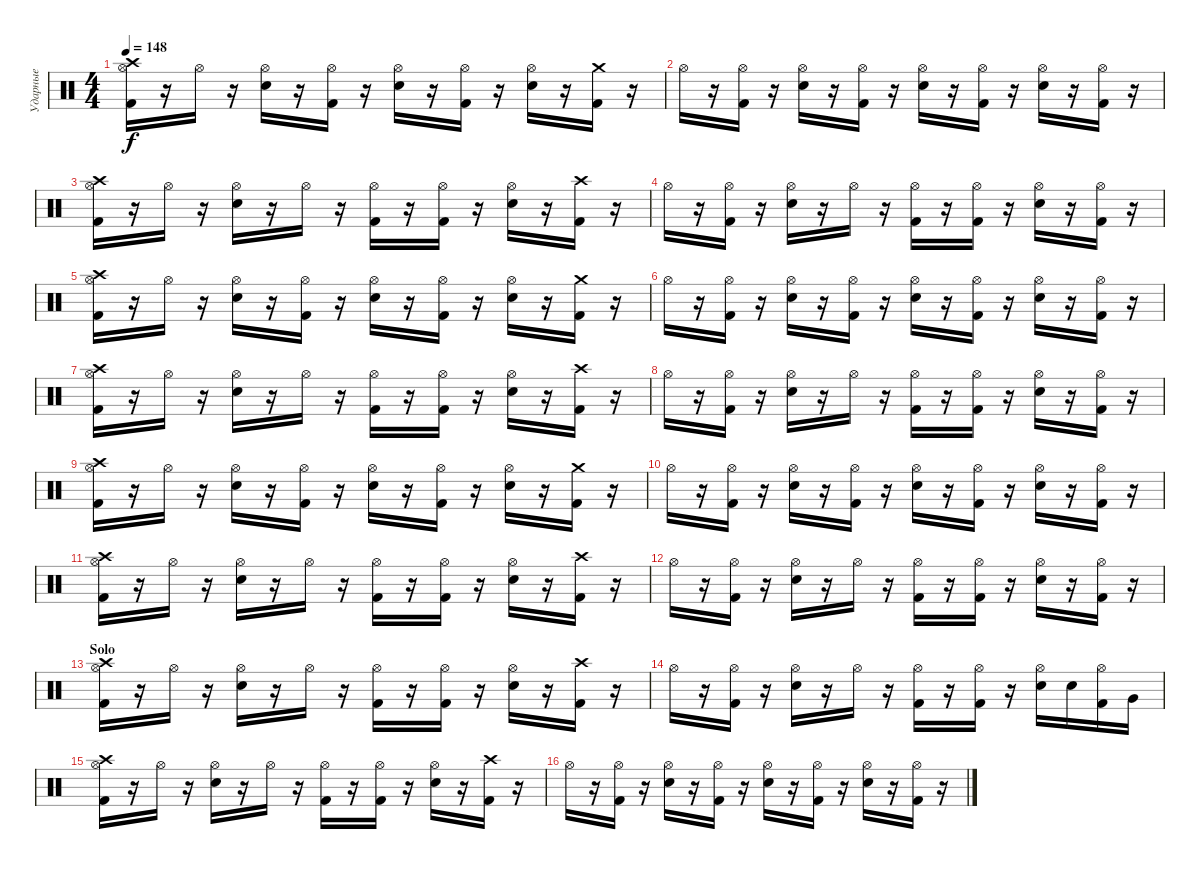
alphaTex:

\track ("Ударные" "Ударные") {instrument percussion}
\staff {score}
\articulation defaults
\ts (4 4)
\tempo 148
\clef neutral
\ks c
("Crash high (hit)" "Hi-Hat (open)" "Kick (hit) 2").16{dy f} r.16 "Hi-Hat (open)".16 r.16 ("Hi-Hat (open)" "Electric Snare (hit)").16 r.16 ("Hi-Hat (open)" "Kick (hit) 2").16 r.16 ("Hi-Hat (open)" "Electric Snare (hit)").16 r.16 ("Hi-Hat (open)" "Kick (hit) 2").16 r.16 ("Hi-Hat (open)" "Electric Snare (hit)").16 r.16 ("Crash medium (hit)" "Kick (hit) 2").16 r.16 |
"Hi-Hat (open)".16 r.16 ("Hi-Hat (open)" "Kick (hit) 2").16 r.16 ("Hi-Hat (open)" "Electric Snare (hit)").16 r.16 ("Hi-Hat (open)" "Kick (hit) 2").16 r.16 ("Hi-Hat (open)" "Electric Snare (hit)").16 r.16 ("Hi-Hat (open)" "Kick (hit) 2").16 r.16 ("Hi-Hat (open)" "Electric Snare (hit)").16 r.16 ("Hi-Hat (open)" "Kick (hit) 2").16 r.16 |
("Crash high (hit)" "Hi-Hat (open)" "Kick (hit) 2").16 r.16 "Hi-Hat (open)".16 r.16 ("Hi-Hat (open)" "Electric Snare (hit)").16 r.16 "Hi-Hat (open)".16 r.16 ("Hi-Hat (open)" "Kick (hit) 2").16 r.16 ("Hi-Hat (open)" "Kick (hit) 2").16 r.16 ("Hi-Hat (open)" "Electric Snare (hit)").16 r.16 ("Crash high (hit)" "Kick (hit) 2").16 r.16 |
"Hi-Hat (open)".16 r.16 ("Hi-Hat (open)" "Kick (hit) 2").16 r.16 ("Hi-Hat (open)" "Electric Snare (hit)").16 r.16 "Hi-Hat (open)".16 r.16 ("Hi-Hat (open)" "Kick (hit) 2").16 r.16 ("Hi-Hat (open)" "Kick (hit) 2").16 r.16 ("Hi-Hat (open)" "Electric Snare (hit)").16 r.16 ("Hi-Hat (open)" "Kick (hit) 2").16 r.16 |
("Crash high (hit)" "Hi-Hat (open)" "Kick (hit) 2").16 r.16 "Hi-Hat (open)".16 r.16 ("Hi-Hat (open)" "Electric Snare (hit)").16 r.16 ("Hi-Hat (open)" "Kick (hit) 2").16 r.16 ("Hi-Hat (open)" "Electric Snare (hit)").16 r.16 ("Hi-Hat (open)" "Kick (hit) 2").16 r.16 ("Hi-Hat (open)" "Electric Snare (hit)").16 r.16 ("Crash medium (hit)" "Kick (hit) 2").16 r.16 |
"Hi-Hat (open)".16 r.16 ("Hi-Hat (open)" "Kick (hit) 2").16 r.16 ("Hi-Hat (open)" "Electric Snare (hit)").16 r.16 ("Hi-Hat (open)" "Kick (hit) 2").16 r.16 ("Hi-Hat (open)" "Electric Snare (hit)").16 r.16 ("Hi-Hat (open)" "Kick (hit) 2").16 r.16 ("Hi-Hat (open)" "Electric Snare (hit)").16 r.16 ("Hi-Hat (open)" "Kick (hit) 2").16 r.16 |
("Crash high (hit)" "Hi-Hat (open)" "Kick (hit) 2").16 r.16 "Hi-Hat (open)".16 r.16 ("Hi-Hat (open)" "Electric Snare (hit)").16 r.16 "Hi-Hat (open)".16 r.16 ("Hi-Hat (open)" "Kick (hit) 2").16 r.16 ("Hi-Hat (open)" "Kick (hit) 2").16 r.16 ("Hi-Hat (open)" "Electric Snare (hit)").16 r.16 ("Crash high (hit)" "Kick (hit) 2").16 r.16 |
"Hi-Hat (open)".16 r.16 ("Hi-Hat (open)" "Kick (hit) 2").16 r.16 ("Hi-Hat (open)" "Electric Snare (hit)").16 r.16 "Hi-Hat (open)".16 r.16 ("Hi-Hat (open)" "Kick (hit) 2").16 r.16 ("Hi-Hat (open)" "Kick (hit) 2").16 r.16 ("Hi-Hat (open)" "Electric Snare (hit)").16 r.16 ("Hi-Hat (open)" "Kick (hit) 2").16 r.16 |
("Crash high (hit)" "Hi-Hat (open)" "Kick (hit) 2").16 r.16 "Hi-Hat (open)".16 r.16 ("Hi-Hat (open)" "Electric Snare (hit)").16 r.16 ("Hi-Hat (open)" "Kick (hit) 2").16 r.16 ("Hi-Hat (open)" "Electric Snare (hit)").16 r.16 ("Hi-Hat (open)" "Kick (hit) 2").16 r.16 ("Hi-Hat (open)" "Electric Snare (hit)").16 r.16 ("Crash medium (hit)" "Kick (hit) 2").16 r.16 |
"Hi-Hat (open)".16 r.16 ("Hi-Hat (open)" "Kick (hit) 2").16 r.16 ("Hi-Hat (open)" "Electric Snare (hit)").16 r.16 ("Hi-Hat (open)" "Kick (hit) 2").16 r.16 ("Hi-Hat (open)" "Electric Snare (hit)").16 r.16 ("Hi-Hat (open)" "Kick (hit) 2").16 r.16 ("Hi-Hat (open)" "Electric Snare (hit)").16 r.16 ("Hi-Hat (open)" "Kick (hit) 2").16 r.16 |
("Crash high (hit)" "Hi-Hat (open)" "Kick (hit) 2").16 r.16 "Hi-Hat (open)".16 r.16 ("Hi-Hat (open)" "Electric Snare (hit)").16 r.16 "Hi-Hat (open)".16 r.16 ("Hi-Hat (open)" "Kick (hit) 2").16 r.16 ("Hi-Hat (open)" "Kick (hit) 2").16 r.16 ("Hi-Hat (open)" "Electric Snare (hit)").16 r.16 ("Crash high (hit)" "Kick (hit) 2").16 r.16 |
"Hi-Hat (open)".16 r.16 ("Hi-Hat (open)" "Kick (hit) 2").16 r.16 ("Hi-Hat (open)" "Electric Snare (hit)").16 r.16 "Hi-Hat (open)".16 r.16 ("Hi-Hat (open)" "Kick (hit) 2").16 r.16 ("Hi-Hat (open)" "Kick (hit) 2").16 r.16 ("Hi-Hat (open)" "Electric Snare (hit)").16 r.16 ("Hi-Hat (open)" "Kick (hit) 2").16 r.16 |
\section ("" "Solo")
("Crash high (hit)" "Hi-Hat (open)" "Kick (hit) 2").16 r.16 "Hi-Hat (open)".16 r.16 ("Hi-Hat (open)" "Electric Snare (hit)").16 r.16 "Hi-Hat (open)".16 r.16 ("Hi-Hat (open)" "Kick (hit) 2").16 r.16 ("Hi-Hat (open)" "Kick (hit) 2").16 r.16 ("Hi-Hat (open)" "Electric Snare (hit)").16 r.16 ("Crash high (hit)" "Kick (hit) 2").16 r.16 |
"Hi-Hat (open)".16 r.16 ("Hi-Hat (open)" "Kick (hit) 2").16 r.16 ("Hi-Hat (open)" "Electric Snare (hit)").16 r.16 "Hi-Hat (open)".16 r.16 ("Hi-Hat (open)" "Kick (hit) 2").16 r.16 ("Hi-Hat (open)" "Kick (hit) 2").16 r.16 ("Hi-Hat (open)" "Electric Snare (hit)").16 "Electric Snare (hit)".16 ("Hi-Hat (open)" "Kick (hit) 2").16 "Very Low Tom (hit)".16 |
("Crash high (hit)" "Hi-Hat (open)" "Kick (hit) 2").16 r.16 "Hi-Hat (open)".16 r.16 ("Hi-Hat (open)" "Electric Snare (hit)").16 r.16 "Hi-Hat (open)".16 r.16 ("Hi-Hat (open)" "Kick (hit) 2").16 r.16 ("Hi-Hat (open)" "Kick (hit) 2").16 r.16 ("Hi-Hat (open)" "Electric Snare (hit)").16 r.16 ("Crash high (hit)" "Kick (hit) 2").16 r.16 |
"Hi-Hat (open)".16 r.16 ("Hi-Hat (open)" "Kick (hit) 2").16 r.16 ("Hi-Hat (open)" "Electric Snare (hit)").16 r.16 ("Hi-Hat (open)" "Kick (hit) 2").16 r.16 ("Hi-Hat (open)" "Electric Snare (hit)").16 r.16 ("Hi-Hat (open)" "Kick (hit) 2").16 r.16 ("Hi-Hat (open)" "Electric Snare (hit)").16 r.16 ("Hi-Hat (open)" "Kick (hit) 2").16 r.16
